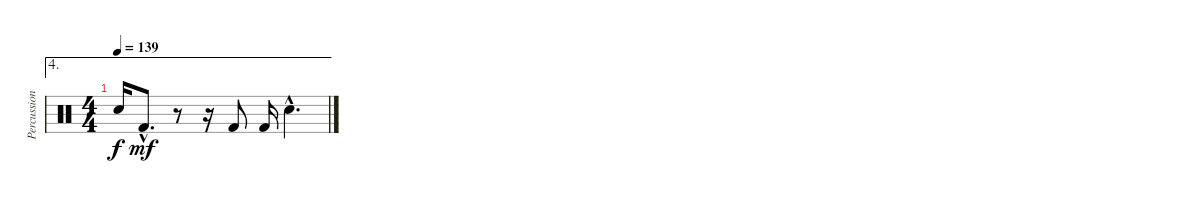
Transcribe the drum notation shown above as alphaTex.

\track ("Percussion" "Percussion") {instrument percussion}
\staff {score}
\articulation defaults
\ae 4
\ts (4 4)
\tempo 139
\clef neutral
\ks c "Snare (hit)"{t}.16{dy f} "Kick (hit) 2"{hac}.8{d dy mf}
r.8 r.16 "Kick (hit) 2".8 "Kick (hit) 2".16 "Electric Snare (hit)"{hac}.4{d}
